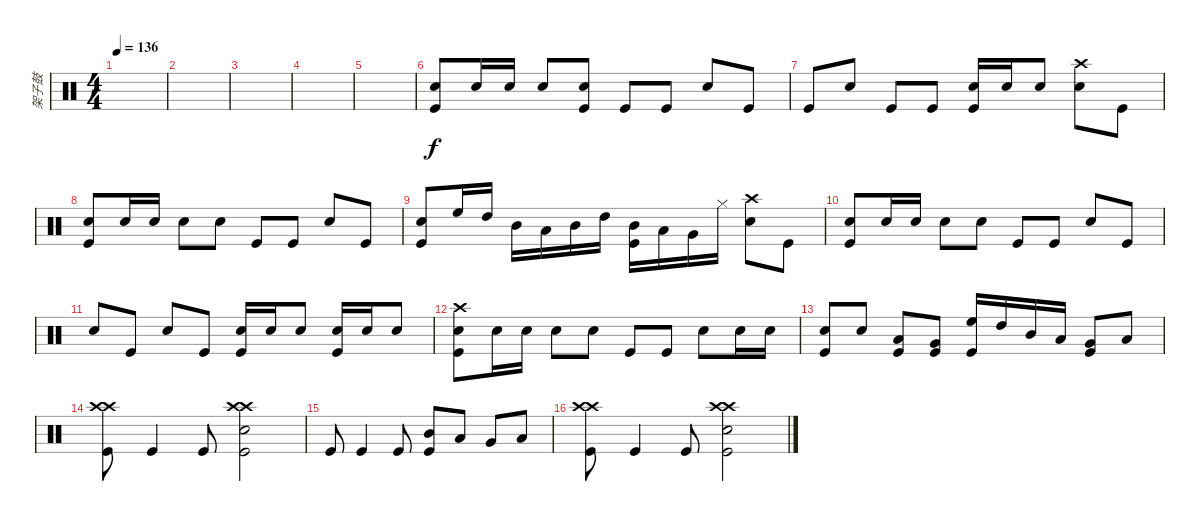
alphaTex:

\track ("架子鼓" "架子鼓") {instrument percussion}
\staff {score}
\articulation defaults
\ts (4 4)
\tempo 136
\clef neutral
\ks c
|
|
|
|
|
("Snare (hit) 2" "Kick (hit)").8 "Snare (hit) 2".16 "Snare (hit) 2".16 "Snare (hit) 2".8 ("Snare (hit) 2" "Kick (hit)").8 "Kick (hit)".8 "Kick (hit)".8 "Snare (hit) 2".8 "Kick (hit)".8 |
"Kick (hit)".8 "Snare (hit) 2".8 "Kick (hit)".8 "Kick (hit)".8 ("Snare (hit) 2" "Kick (hit)").16 "Snare (hit) 2".16 "Snare (hit) 2".8 ("Crash high (hit)" "Snare (hit) 2").8 "Kick (hit)".8 |
("Snare (hit) 2" "Kick (hit)").8 "Snare (hit) 2".16 "Snare (hit) 2".16 "Snare (hit) 2".8 "Snare (hit) 2".8 "Kick (hit)".8 "Kick (hit)".8 "Snare (hit) 2".8 "Kick (hit)".8 |
("Snare (hit) 2" "Kick (hit)").8 "High Floor Tom (hit)".16 "High Tom (hit)".16 "Mid Tom (hit)".16 "Low Tom (hit)".16 "Mid Tom (hit)".16 "High Tom (hit)".16 ("Mid Tom (hit)" "Kick (hit)").16 "Low Tom (hit)".16 "Very Low Tom (hit)".16 "Hi-Hat (closed)".16 ("Crash high (hit)" "Snare (hit) 2").8 "Kick (hit)".8 |
("Snare (hit) 2" "Kick (hit)").8 "Snare (hit) 2".16 "Snare (hit) 2".16 "Snare (hit) 2".8 "Snare (hit) 2".8 "Kick (hit)".8 "Kick (hit)".8 "Snare (hit) 2".8 "Kick (hit)".8 |
"Snare (hit) 2".8 "Kick (hit)".8 "Snare (hit) 2".8 "Kick (hit)".8 ("Snare (hit) 2" "Kick (hit)").16 "Snare (hit) 2".16 "Snare (hit) 2".8 ("Snare (hit) 2" "Kick (hit)").16 "Snare (hit) 2".16 "Snare (hit) 2".8 |
("Crash high (hit)" "Snare (hit) 2" "Kick (hit)").8 "Snare (hit) 2".16 "Snare (hit) 2".16 "Snare (hit) 2".8 "Snare (hit) 2".8 "Kick (hit)".8 "Kick (hit)".8 "Snare (hit) 2".8 "Snare (hit) 2".16 "Snare (hit) 2".16 |
("Snare (hit) 2" "Kick (hit)").8 "Snare (hit) 2".8 ("Low Tom (hit)" "Kick (hit)").8 ("Very Low Tom (hit)" "Kick (hit)").8 ("High Floor Tom (hit)" "Kick (hit)").16 "High Tom (hit)".16 "Mid Tom (hit)".16 "Low Tom (hit)".16 ("Very Low Tom (hit)" "Kick (hit)").8 "Low Floor Tom (hit)".8 |
("Crash high (hit)" "Crash high (hit)" "Kick (hit)").8 "Kick (hit)".4 "Kick (hit)".8 ("Crash high (hit)" "Crash high (hit)" "Snare (hit) 2" "Kick (hit)").2 |
"Kick (hit)".8 "Kick (hit)".4 "Kick (hit)".8 ("Mid Tom (hit)" "Kick (hit)").8 "Low Tom (hit)".8 "Very Low Tom (hit)".8 "Low Floor Tom (hit)".8 |
("Crash high (hit)" "Crash high (hit)" "Kick (hit)").8 "Kick (hit)".4 "Kick (hit)".8 ("Crash high (hit)" "Crash high (hit)" "Snare (hit) 2" "Kick (hit)").2
